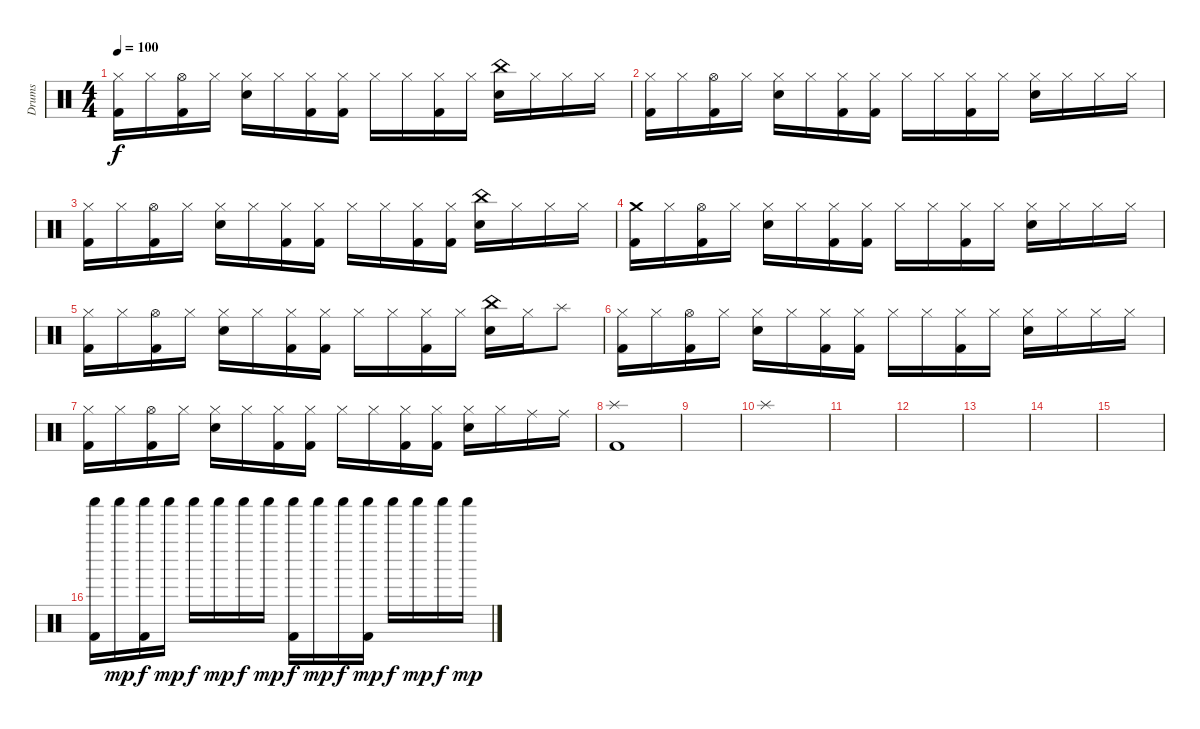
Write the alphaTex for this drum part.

\track ("Drums" "Drums") {instrument percussion}
\staff {score}
\articulation defaults
\ts (4 4)
\tempo 100
\clef neutral
\ks c
("Hi-Hat (closed)" "Kick (hit) 2").16{dy f} "Hi-Hat (closed)".16 ("Hi-Hat (open)" "Kick (hit) 2").16 "Hi-Hat (closed)".16 ("Hi-Hat (closed)" "Snare (hit) 2").16 "Hi-Hat (closed)".16 ("Hi-Hat (closed)" "Kick (hit) 2").16 ("Hi-Hat (closed)" "Kick (hit) 2").16 "Hi-Hat (closed)".16 "Hi-Hat (closed)".16 ("Hi-Hat (closed)" "Kick (hit) 2").16 "Hi-Hat (closed)".16 ("China (hit)" "Snare (hit) 2").16 "Hi-Hat (closed)".16 "Hi-Hat (closed)".16 "Hi-Hat (closed)".16 |
("Hi-Hat (closed)" "Kick (hit) 2").16 "Hi-Hat (closed)".16 ("Hi-Hat (open)" "Kick (hit) 2").16 "Hi-Hat (closed)".16 ("Hi-Hat (closed)" "Snare (hit) 2").16 "Hi-Hat (closed)".16 ("Hi-Hat (closed)" "Kick (hit) 2").16 ("Hi-Hat (closed)" "Kick (hit) 2").16 "Hi-Hat (closed)".16 "Hi-Hat (closed)".16 ("Hi-Hat (closed)" "Kick (hit) 2").16 "Hi-Hat (closed)".16 ("Hi-Hat (closed)" "Snare (hit) 2").16 "Hi-Hat (closed)".16 "Hi-Hat (closed)".16 "Hi-Hat (closed)".16 |
("Hi-Hat (closed)" "Kick (hit) 2").16 "Hi-Hat (closed)".16 ("Hi-Hat (open)" "Kick (hit) 2").16 "Hi-Hat (closed)".16 ("Hi-Hat (closed)" "Snare (hit) 2").16 "Hi-Hat (closed)".16 ("Hi-Hat (closed)" "Kick (hit) 2").16 ("Hi-Hat (closed)" "Kick (hit) 2").16 "Hi-Hat (closed)".16 "Hi-Hat (closed)".16 ("Hi-Hat (closed)" "Kick (hit) 2").16 ("Hi-Hat (closed)" "Kick (hit) 2").16 ("China (hit)" "Snare (hit) 2").16 "Hi-Hat (closed)".16 "Hi-Hat (closed)".16 "Hi-Hat (closed)".16 |
("Crash medium (hit)" "Kick (hit) 2").16 "Hi-Hat (closed)".16 ("Hi-Hat (open)" "Kick (hit) 2").16 "Hi-Hat (closed)".16 ("Hi-Hat (closed)" "Snare (hit) 2").16 "Hi-Hat (closed)".16 ("Hi-Hat (closed)" "Kick (hit) 2").16 ("Hi-Hat (closed)" "Kick (hit) 2").16 "Hi-Hat (closed)".16 "Hi-Hat (closed)".16 ("Hi-Hat (closed)" "Kick (hit) 2").16 "Hi-Hat (closed)".16 ("Hi-Hat (closed)" "Snare (hit) 2").16 "Hi-Hat (closed)".16 "Hi-Hat (closed)".16 "Hi-Hat (closed)".16 |
("Hi-Hat (closed)" "Kick (hit) 2").16 "Hi-Hat (closed)".16 ("Hi-Hat (open)" "Kick (hit) 2").16 "Hi-Hat (closed)".16 ("Hi-Hat (closed)" "Snare (hit) 2").16 "Hi-Hat (closed)".16 ("Hi-Hat (closed)" "Kick (hit) 2").16 ("Hi-Hat (closed)" "Kick (hit) 2").16 "Hi-Hat (closed)".16 "Hi-Hat (closed)".16 ("Hi-Hat (closed)" "Kick (hit) 2").16 "Hi-Hat (closed)".16 ("China (hit)" "Snare (hit) 2").16 "Hi-Hat (closed)".16 "Splash (hit)".8 |
("Hi-Hat (closed)" "Kick (hit) 2").16 "Hi-Hat (closed)".16 ("Hi-Hat (open)" "Kick (hit) 2").16 "Hi-Hat (closed)".16 ("Hi-Hat (closed)" "Snare (hit) 2").16 "Hi-Hat (closed)".16 ("Hi-Hat (closed)" "Kick (hit) 2").16 ("Hi-Hat (closed)" "Kick (hit) 2").16 "Hi-Hat (closed)".16 "Hi-Hat (closed)".16 ("Hi-Hat (closed)" "Kick (hit) 2").16 "Hi-Hat (closed)".16 ("Hi-Hat (closed)" "Snare (hit) 2").16 "Hi-Hat (closed)".16 "Hi-Hat (closed)".16 "Hi-Hat (closed)".16 |
("Hi-Hat (closed)" "Kick (hit) 2").16 "Hi-Hat (closed)".16 ("Hi-Hat (open)" "Kick (hit) 2").16 "Hi-Hat (closed)".16 ("Hi-Hat (closed)" "Snare (hit) 2").16 "Hi-Hat (closed)".16 ("Hi-Hat (closed)" "Kick (hit) 2").16 ("Hi-Hat (closed)" "Kick (hit) 2").16 "Hi-Hat (closed)".16 "Hi-Hat (closed)".16 ("Hi-Hat (closed)" "Kick (hit) 2").16 ("Hi-Hat (closed)" "Kick (hit) 2").16 ("Hi-Hat (closed)" "Snare (hit) 2").16 "Hi-Hat (closed)".16 "Ride (middle)".16 "Ride (middle)".16 |
("Splash (hit)" "Kick (hit) 2").1 |
|
"Splash (hit)".1 |
|
|
|
|
|
("Shaker (hit)" "Kick (hit) 2").16 "Shaker (hit)".16{dy mp} ("Shaker (hit)" "Kick (hit) 2").16{dy f} "Shaker (hit)".16{dy mp} "Shaker (hit)".16{dy f} "Shaker (hit)".16{dy mp} "Shaker (hit)".16{dy f} "Shaker (hit)".16{dy mp} ("Shaker (hit)" "Kick (hit) 2").16{dy f} "Shaker (hit)".16{dy mp} "Shaker (hit)".16{dy f} ("Shaker (hit)" "Kick (hit) 2").16{dy mp} "Shaker (hit)".16{dy f} "Shaker (hit)".16{dy mp} "Shaker (hit)".16{dy f} "Shaker (hit)".16{dy mp}
